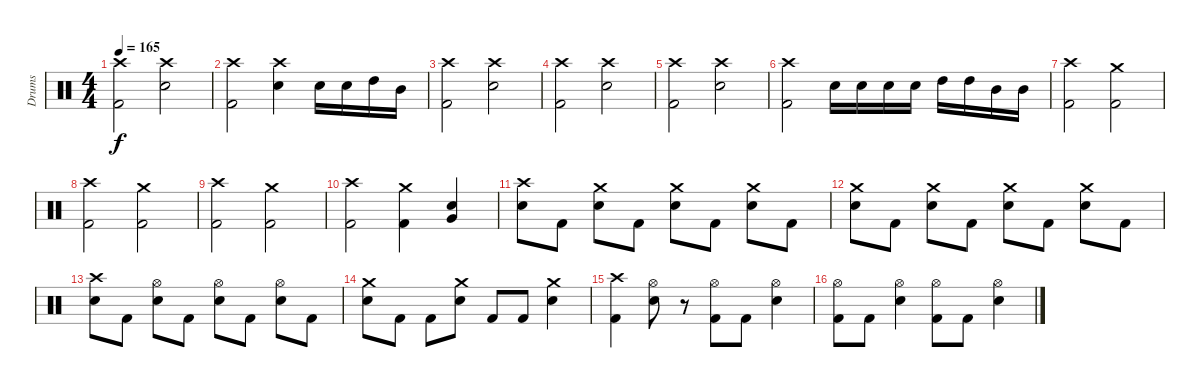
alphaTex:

\track ("Drums" "Drums") {instrument percussion}
\staff {score}
\articulation defaults
\ts (4 4)
\tempo 165
\clef neutral
\ks c
("Crash high (hit)" "Kick (hit) 2").2{dy f} ("Crash high (hit)" "Electric Snare (hit)").2 |
("Crash high (hit)" "Kick (hit) 2").2 ("Crash high (hit)" "Electric Snare (hit)").4 "Electric Snare (hit)".16 "Electric Snare (hit)".16 "High Tom (hit)".16 "Mid Tom (hit)".16 |
("Crash high (hit)" "Kick (hit) 2").2 ("Crash high (hit)" "Electric Snare (hit)").2 |
("Crash high (hit)" "Kick (hit) 2").2 ("Crash high (hit)" "Electric Snare (hit)").2 |
("Crash high (hit)" "Kick (hit) 2").2 ("Crash high (hit)" "Electric Snare (hit)").2 |
("Crash high (hit)" "Kick (hit) 2").2 "Electric Snare (hit)".16 "Electric Snare (hit)".16 "Electric Snare (hit)".16 "Electric Snare (hit)".16 "High Tom (hit)".16 "High Tom (hit)".16 "Mid Tom (hit)".16 "Mid Tom (hit)".16 |
("Crash high (hit)" "Kick (hit) 2").2 ("Crash medium (hit)" "Kick (hit) 2").2 |
("Crash high (hit)" "Kick (hit) 2").2 ("Crash medium (hit)" "Kick (hit) 2").2 |
("Crash high (hit)" "Kick (hit) 2").2 ("Crash medium (hit)" "Kick (hit) 2").2 |
("Crash high (hit)" "Kick (hit) 2").2 ("Crash medium (hit)" "Kick (hit) 2").4 ("Electric Snare (hit)" "Very Low Tom (hit)").4 |
("Crash high (hit)" "Electric Snare (hit)").8 "Kick (hit) 2".8 ("Crash medium (hit)" "Electric Snare (hit)").8 "Kick (hit) 2".8 ("Crash medium (hit)" "Electric Snare (hit)").8 "Kick (hit) 2".8 ("Crash medium (hit)" "Electric Snare (hit)").8 "Kick (hit) 2".8 |
("Crash medium (hit)" "Electric Snare (hit)").8 "Kick (hit) 2".8 ("Crash medium (hit)" "Electric Snare (hit)").8 "Kick (hit) 2".8 ("Crash medium (hit)" "Electric Snare (hit)").8 "Kick (hit) 2".8 ("Crash medium (hit)" "Electric Snare (hit)").8 "Kick (hit) 2".8 |
("Crash high (hit)" "Electric Snare (hit)").8 "Kick (hit) 2".8 ("Hi-Hat (open)" "Electric Snare (hit)").8 "Kick (hit) 2".8 ("Hi-Hat (open)" "Electric Snare (hit)").8 "Kick (hit) 2".8 ("Hi-Hat (open)" "Electric Snare (hit)").8 "Kick (hit) 2".8 |
("Crash medium (hit)" "Electric Snare (hit)").8 "Kick (hit) 2".8 "Kick (hit) 2".8 ("Crash medium (hit)" "Electric Snare (hit)").8 "Kick (hit) 2".8 "Kick (hit) 2".8 ("Crash medium (hit)" "Electric Snare (hit)").4 |
("Crash high (hit)" "Kick (hit) 2").4 ("Hi-Hat (open)" "Electric Snare (hit)").8 r.8 ("Hi-Hat (open)" "Kick (hit) 2").8 "Kick (hit) 2".8 ("Hi-Hat (open)" "Electric Snare (hit)").4 |
("Hi-Hat (open)" "Kick (hit) 2").8 "Kick (hit) 2".8 ("Hi-Hat (open)" "Electric Snare (hit)").4 ("Hi-Hat (open)" "Kick (hit) 2").8 "Kick (hit) 2".8 ("Hi-Hat (open)" "Electric Snare (hit)").4
